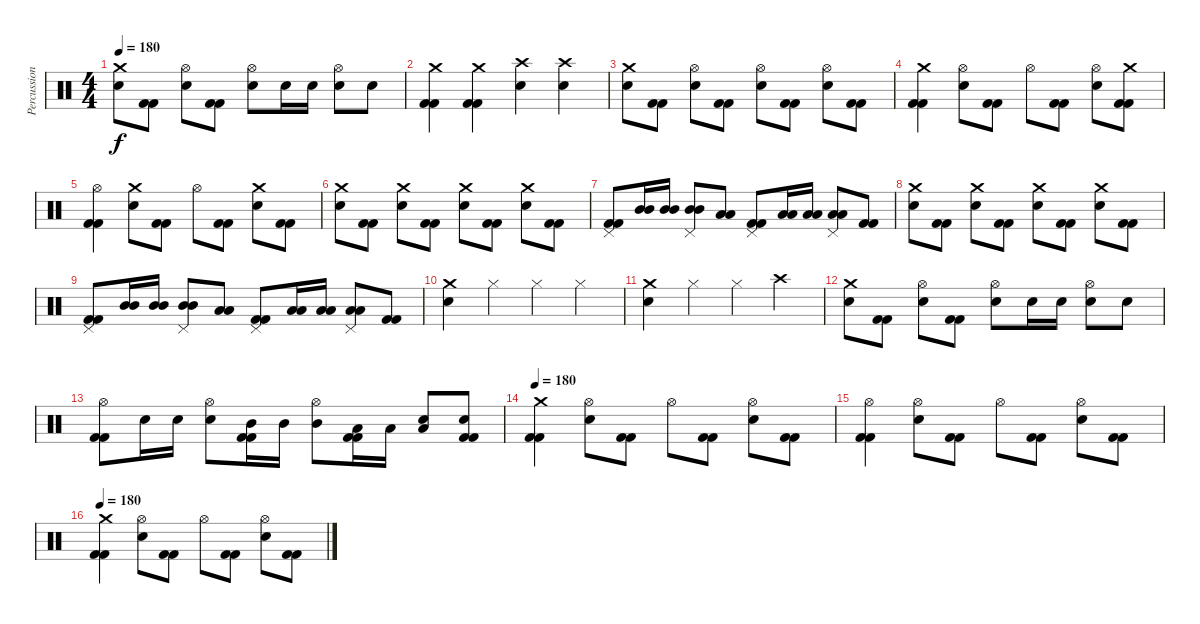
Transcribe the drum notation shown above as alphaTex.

\track ("Percussioni" "Percussion") {instrument percussion}
\staff {score}
\articulation defaults
\ts (4 4)
\tempo 180
\clef neutral
\ks c
("Crash medium (hit)" "Electric Snare (hit)").8{dy f} ("Kick (hit) 2" "Kick (hit) 2").8 ("Hi-Hat (open)" "Electric Snare (hit)").8 ("Kick (hit) 2" "Kick (hit) 2").8 ("Hi-Hat (open)" "Electric Snare (hit)").8 "Electric Snare (hit)".16 "Electric Snare (hit)".16 ("Hi-Hat (open)" "Electric Snare (hit)").8 "Electric Snare (hit)".8 |
("Crash medium (hit)" "Kick (hit) 2" "Kick (hit) 2").4 ("Crash medium (hit)" "Kick (hit) 2" "Kick (hit) 2").4 ("Crash high (hit)" "Electric Snare (hit)").4 ("Crash high (hit)" "Electric Snare (hit)").4 |
("Crash medium (hit)" "Electric Snare (hit)").8 ("Kick (hit) 2" "Kick (hit) 2").8 ("Hi-Hat (open)" "Electric Snare (hit)").8 ("Kick (hit) 2" "Kick (hit) 2").8 ("Hi-Hat (open)" "Electric Snare (hit)").8 ("Kick (hit) 2" "Kick (hit) 2").8 ("Hi-Hat (open)" "Electric Snare (hit)").8 ("Kick (hit) 2" "Kick (hit) 2").8 |
("Crash medium (hit)" "Kick (hit) 2" "Kick (hit) 2").4 ("Hi-Hat (open)" "Electric Snare (hit)").8 ("Kick (hit) 2" "Kick (hit) 2").8 "Hi-Hat (open)".8 ("Kick (hit) 2" "Kick (hit) 2").8 ("Hi-Hat (open)" "Electric Snare (hit)").8 ("Crash medium (hit)" "Kick (hit) 2" "Kick (hit) 2").8 |
("Hi-Hat (open)" "Kick (hit) 2" "Kick (hit) 2").4 ("Crash medium (hit)" "Electric Snare (hit)").8 ("Kick (hit) 2" "Kick (hit) 2").8 "Hi-Hat (open)".8 ("Kick (hit) 2" "Kick (hit) 2").8 ("Crash medium (hit)" "Electric Snare (hit)").8 ("Kick (hit) 2" "Kick (hit) 2").8 |
("Crash medium (hit)" "Electric Snare (hit)").8 ("Kick (hit) 2" "Kick (hit) 2").8 ("Crash medium (hit)" "Electric Snare (hit)").8 ("Kick (hit) 2" "Kick (hit) 2").8 ("Crash medium (hit)" "Electric Snare (hit)").8 ("Kick (hit) 2" "Kick (hit) 2").8 ("Crash medium (hit)" "Electric Snare (hit)").8 ("Kick (hit) 2" "Kick (hit) 2").8 |
("Pedal Hi-Hat (hit)" "Kick (hit) 2" "Kick (hit) 2").8 ("Mid Tom (hit)" "Mid Tom (hit)").16 ("Mid Tom (hit)" "Mid Tom (hit)").16 ("Pedal Hi-Hat (hit)" "Mid Tom (hit)" "Mid Tom (hit)").8 ("Low Tom (hit)" "Low Tom (hit)").8 ("Pedal Hi-Hat (hit)" "Kick (hit) 2" "Kick (hit) 2").8 ("Low Tom (hit)" "Low Tom (hit)").16 ("Low Tom (hit)" "Low Tom (hit)").16 ("Pedal Hi-Hat (hit)" "Low Tom (hit)" "Low Tom (hit)").8 ("Kick (hit) 2" "Kick (hit) 2").8 |
("Crash medium (hit)" "Electric Snare (hit)").8 ("Kick (hit) 2" "Kick (hit) 2").8 ("Crash medium (hit)" "Electric Snare (hit)").8 ("Kick (hit) 2" "Kick (hit) 2").8 ("Crash medium (hit)" "Electric Snare (hit)").8 ("Kick (hit) 2" "Kick (hit) 2").8 ("Crash medium (hit)" "Electric Snare (hit)").8 ("Kick (hit) 2" "Kick (hit) 2").8 |
("Pedal Hi-Hat (hit)" "Kick (hit) 2" "Kick (hit) 2").8 ("Mid Tom (hit)" "Mid Tom (hit)").16 ("Mid Tom (hit)" "Mid Tom (hit)").16 ("Pedal Hi-Hat (hit)" "Mid Tom (hit)" "Mid Tom (hit)").8 ("Low Tom (hit)" "Low Tom (hit)").8 ("Pedal Hi-Hat (hit)" "Kick (hit) 2" "Kick (hit) 2").8 ("Low Tom (hit)" "Low Tom (hit)").16 ("Low Tom (hit)" "Low Tom (hit)").16 ("Pedal Hi-Hat (hit)" "Low Tom (hit)" "Low Tom (hit)").8 ("Kick (hit) 2" "Kick (hit) 2").8 |
("Crash medium (hit)" "Electric Snare (hit)").4 "Hi-Hat (closed)".4 "Hi-Hat (closed)".4 "Hi-Hat (closed)".4 |
("Crash medium (hit)" "Electric Snare (hit)").4 "Hi-Hat (closed)".4 "Hi-Hat (closed)".4 "Crash high (hit)".4 |
("Crash medium (hit)" "Electric Snare (hit)").8 ("Kick (hit) 2" "Kick (hit) 2").8 ("Hi-Hat (open)" "Electric Snare (hit)").8 ("Kick (hit) 2" "Kick (hit) 2").8 ("Hi-Hat (open)" "Electric Snare (hit)").8 "Electric Snare (hit)".16 "Electric Snare (hit)".16 ("Hi-Hat (open)" "Electric Snare (hit)").8 "Electric Snare (hit)".8 |
("Hi-Hat (open)" "Kick (hit) 2" "Kick (hit) 2").8 "Electric Snare (hit)".16 "Electric Snare (hit)".16 ("Hi-Hat (open)" "Electric Snare (hit)").8 ("Mid Tom (hit)" "Kick (hit) 2" "Kick (hit) 2").16 "Mid Tom (hit)".16 ("Hi-Hat (open)" "Mid Tom (hit)").8 ("Low Tom (hit)" "Kick (hit) 2" "Kick (hit) 2").16 "Low Tom (hit)".16 ("Low Tom (hit)" "Electric Snare (hit)").8 ("Electric Snare (hit)" "Kick (hit) 2" "Kick (hit) 2").8 |
\tempo 180
("Crash medium (hit)" "Kick (hit) 2" "Kick (hit) 2").4 ("Hi-Hat (open)" "Electric Snare (hit)").8 ("Kick (hit) 2" "Kick (hit) 2").8 "Hi-Hat (open)".8 ("Kick (hit) 2" "Kick (hit) 2").8 ("Hi-Hat (open)" "Electric Snare (hit)").8 ("Kick (hit) 2" "Kick (hit) 2").8 |
("Hi-Hat (open)" "Kick (hit) 2" "Kick (hit) 2").4 ("Hi-Hat (open)" "Electric Snare (hit)").8 ("Kick (hit) 2" "Kick (hit) 2").8 "Hi-Hat (open)".8 ("Kick (hit) 2" "Kick (hit) 2").8 ("Hi-Hat (open)" "Electric Snare (hit)").8 ("Kick (hit) 2" "Kick (hit) 2").8 |
\tempo 180
("Crash medium (hit)" "Kick (hit) 2" "Kick (hit) 2").4 ("Hi-Hat (open)" "Electric Snare (hit)").8 ("Kick (hit) 2" "Kick (hit) 2").8 "Hi-Hat (open)".8 ("Kick (hit) 2" "Kick (hit) 2").8 ("Hi-Hat (open)" "Electric Snare (hit)").8 ("Kick (hit) 2" "Kick (hit) 2").8
